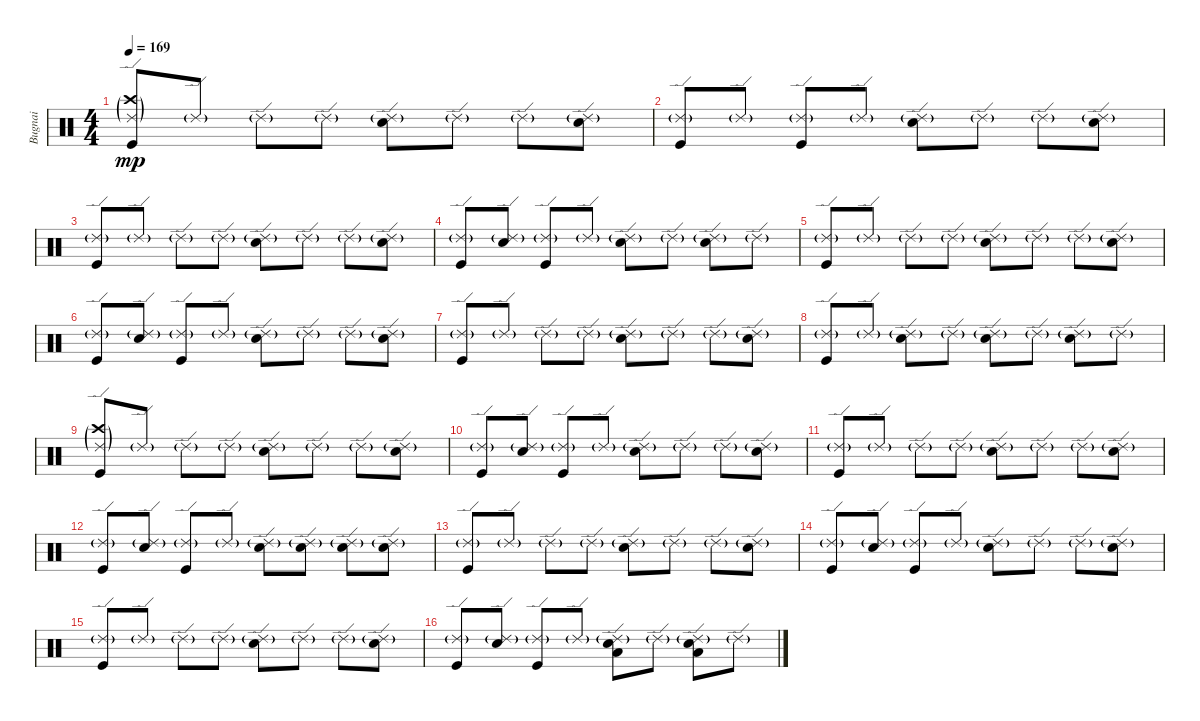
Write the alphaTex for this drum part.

\track ("Bugnai" "Bugnai") {instrument percussion}
\staff {score}
\articulation defaults
\ts (4 4)
\tempo 169
\clef neutral
\ks c
("Ride (edge) 2"{g} "Crash high (hit)"{g} "Kick (hit)").8{dy mp} "Ride (edge) 2"{g}.8 "Ride (edge) 2"{g}.8 "Ride (edge) 2"{g}.8 ("Ride (edge) 2"{g} "Snare (hit) 2").8 "Ride (edge) 2"{g}.8 "Ride (edge) 2"{g}.8 ("Ride (edge) 2"{g} "Snare (hit) 2").8 |
("Ride (edge) 2"{g} "Kick (hit)").8 "Ride (edge) 2"{g}.8 ("Ride (edge) 2"{g} "Kick (hit)").8 "Ride (edge) 2"{g}.8 ("Ride (edge) 2"{g} "Snare (hit) 2").8 "Ride (edge) 2"{g}.8 "Ride (edge) 2"{g}.8 ("Ride (edge) 2"{g} "Snare (hit) 2").8 |
("Ride (edge) 2"{g} "Kick (hit)").8 "Ride (edge) 2"{g}.8 "Ride (edge) 2"{g}.8 "Ride (edge) 2"{g}.8 ("Ride (edge) 2"{g} "Snare (hit) 2").8 "Ride (edge) 2"{g}.8 "Ride (edge) 2"{g}.8 ("Ride (edge) 2"{g} "Snare (hit) 2").8 |
("Ride (edge) 2"{g} "Kick (hit)").8 ("Ride (edge) 2"{g} "Snare (hit) 2").8 ("Ride (edge) 2"{g} "Kick (hit)").8 "Ride (edge) 2"{g}.8 ("Ride (edge) 2"{g} "Snare (hit) 2").8 "Ride (edge) 2"{g}.8 ("Ride (edge) 2"{g} "Snare (hit) 2").8 "Ride (edge) 2"{g}.8 |
("Ride (edge) 2"{g} "Kick (hit)").8 "Ride (edge) 2"{g}.8 "Ride (edge) 2"{g}.8 "Ride (edge) 2"{g}.8 ("Ride (edge) 2"{g} "Snare (hit) 2").8 "Ride (edge) 2"{g}.8 "Ride (edge) 2"{g}.8 ("Ride (edge) 2"{g} "Snare (hit) 2").8 |
("Ride (edge) 2"{g} "Kick (hit)").8 ("Ride (edge) 2"{g} "Snare (hit) 2").8 ("Ride (edge) 2"{g} "Kick (hit)").8 "Ride (edge) 2"{g}.8 ("Ride (edge) 2"{g} "Snare (hit) 2").8 "Ride (edge) 2"{g}.8 "Ride (edge) 2"{g}.8 ("Ride (edge) 2"{g} "Snare (hit) 2").8 |
("Ride (edge) 2"{g} "Kick (hit)").8 "Ride (edge) 2"{g}.8 "Ride (edge) 2"{g}.8 "Ride (edge) 2"{g}.8 ("Ride (edge) 2"{g} "Snare (hit) 2").8 "Ride (edge) 2"{g}.8 "Ride (edge) 2"{g}.8 ("Ride (edge) 2"{g} "Snare (hit) 2").8 |
("Ride (edge) 2"{g} "Kick (hit)").8 "Ride (edge) 2"{g}.8 ("Ride (edge) 2"{g} "Snare (hit) 2").8 "Ride (edge) 2"{g}.8 ("Ride (edge) 2"{g} "Snare (hit) 2").8 "Ride (edge) 2"{g}.8 ("Ride (edge) 2"{g} "Snare (hit) 2").8 "Ride (edge) 2"{g}.8 |
("Ride (edge) 2"{g} "Crash high (hit)"{g} "Kick (hit)").8 "Ride (edge) 2"{g}.8 "Ride (edge) 2"{g}.8 "Ride (edge) 2"{g}.8 ("Ride (edge) 2"{g} "Snare (hit) 2").8 "Ride (edge) 2"{g}.8 "Ride (edge) 2"{g}.8 ("Ride (edge) 2"{g} "Snare (hit) 2").8 |
("Ride (edge) 2"{g} "Kick (hit)").8 ("Ride (edge) 2"{g} "Snare (hit) 2").8 ("Ride (edge) 2"{g} "Kick (hit)").8 "Ride (edge) 2"{g}.8 ("Ride (edge) 2"{g} "Snare (hit) 2").8 "Ride (edge) 2"{g}.8 "Ride (edge) 2"{g}.8 ("Ride (edge) 2"{g} "Snare (hit) 2").8 |
("Ride (edge) 2"{g} "Kick (hit)").8 "Ride (edge) 2"{g}.8 "Ride (edge) 2"{g}.8 "Ride (edge) 2"{g}.8 ("Ride (edge) 2"{g} "Snare (hit) 2").8 "Ride (edge) 2"{g}.8 "Ride (edge) 2"{g}.8 ("Ride (edge) 2"{g} "Snare (hit) 2").8 |
("Ride (edge) 2"{g} "Kick (hit)").8 ("Ride (edge) 2"{g} "Snare (hit) 2").8 ("Ride (edge) 2"{g} "Kick (hit)").8 "Ride (edge) 2"{g}.8 ("Ride (edge) 2"{g} "Snare (hit) 2").8 ("Ride (edge) 2"{g} "Snare (hit) 2").8 ("Ride (edge) 2"{g} "Snare (hit) 2").8 ("Ride (edge) 2"{g} "Snare (hit) 2").8 |
("Ride (edge) 2"{g} "Kick (hit)").8 "Ride (edge) 2"{g}.8 "Ride (edge) 2"{g}.8 "Ride (edge) 2"{g}.8 ("Ride (edge) 2"{g} "Snare (hit) 2").8 "Ride (edge) 2"{g}.8 "Ride (edge) 2"{g}.8 ("Ride (edge) 2"{g} "Snare (hit) 2").8 |
("Ride (edge) 2"{g} "Kick (hit)").8 ("Ride (edge) 2"{g} "Snare (hit) 2").8 ("Ride (edge) 2"{g} "Kick (hit)").8 "Ride (edge) 2"{g}.8 ("Ride (edge) 2"{g} "Snare (hit) 2").8 "Ride (edge) 2"{g}.8 "Ride (edge) 2"{g}.8 ("Ride (edge) 2"{g} "Snare (hit) 2").8 |
("Ride (edge) 2"{g} "Kick (hit)").8 "Ride (edge) 2"{g}.8 "Ride (edge) 2"{g}.8 "Ride (edge) 2"{g}.8 ("Ride (edge) 2"{g} "Snare (hit) 2").8 "Ride (edge) 2"{g}.8 "Ride (edge) 2"{g}.8 ("Ride (edge) 2"{g} "Snare (hit) 2").8 |
("Ride (edge) 2"{g} "Kick (hit)").8 ("Ride (edge) 2"{g} "Snare (hit) 2").8 ("Ride (edge) 2"{g} "Kick (hit)").8 "Ride (edge) 2"{g}.8 ("Ride (edge) 2"{g} "Snare (hit) 2" "Low Tom (hit)").8 "Ride (edge) 2"{g}.8 ("Ride (edge) 2"{g} "Snare (hit) 2" "Low Tom (hit)").8 "Ride (edge) 2"{g}.8
